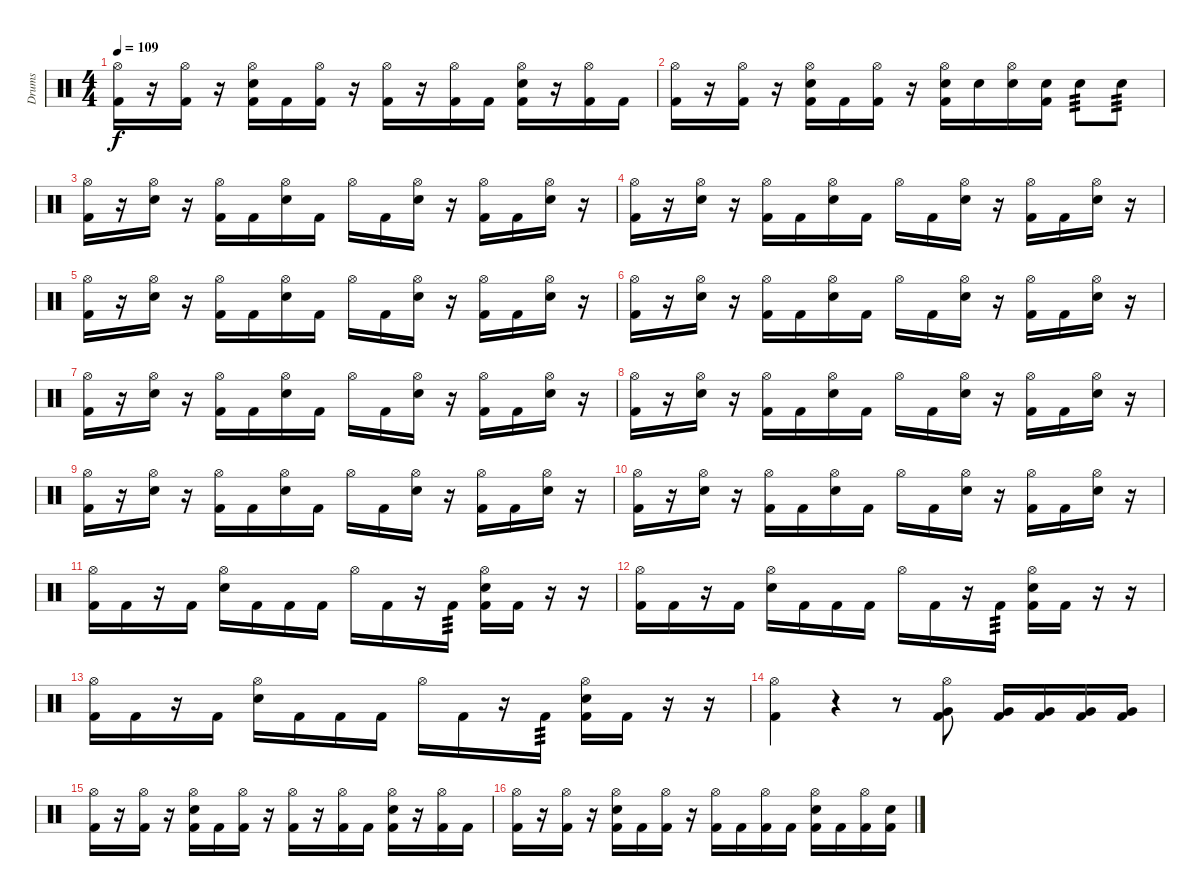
\track ("Drums" "Drums") {instrument percussion}
\staff {score}
\articulation defaults
\ts (4 4)
\tempo 109
\clef neutral
\ks c
("Hi-Hat (open)" "Kick (hit) 2").16{dy f} r.16 ("Hi-Hat (open)" "Kick (hit) 2").16 r.16 ("Hi-Hat (open)" "Electric Snare (hit)" "Kick (hit) 2").16 "Kick (hit) 2".16 ("Hi-Hat (open)" "Kick (hit) 2").16 r.16 ("Hi-Hat (open)" "Kick (hit) 2").16 r.16 ("Hi-Hat (open)" "Kick (hit) 2").16 "Kick (hit) 2".16 ("Hi-Hat (open)" "Electric Snare (hit)" "Kick (hit) 2").16 r.16 ("Hi-Hat (open)" "Kick (hit) 2").16 "Kick (hit) 2".16 |
("Hi-Hat (open)" "Kick (hit) 2").16 r.16 ("Hi-Hat (open)" "Kick (hit) 2").16 r.16 ("Hi-Hat (open)" "Electric Snare (hit)" "Kick (hit) 2").16 "Kick (hit) 2".16 ("Hi-Hat (open)" "Kick (hit) 2").16 r.16 ("Hi-Hat (open)" "Electric Snare (hit)" "Kick (hit) 2").16 "Electric Snare (hit)".16 ("Hi-Hat (open)" "Electric Snare (hit)").16 ("Electric Snare (hit)" "Kick (hit) 2").16 "Electric Snare (hit)".8{tp 3} "Electric Snare (hit)".8{tp 3} |
("Hi-Hat (open)" "Kick (hit) 2").16 r.16 ("Hi-Hat (open)" "Electric Snare (hit)").16 r.16 ("Hi-Hat (open)" "Kick (hit) 2").16 "Kick (hit) 2".16 ("Hi-Hat (open)" "Electric Snare (hit)").16 "Kick (hit) 2".16 "Hi-Hat (open)".16 "Kick (hit) 2".16 ("Hi-Hat (open)" "Electric Snare (hit)").16 r.16 ("Hi-Hat (open)" "Kick (hit) 2").16 "Kick (hit) 2".16 ("Hi-Hat (open)" "Electric Snare (hit)").16 r.16 |
("Hi-Hat (open)" "Kick (hit) 2").16 r.16 ("Hi-Hat (open)" "Electric Snare (hit)").16 r.16 ("Hi-Hat (open)" "Kick (hit) 2").16 "Kick (hit) 2".16 ("Hi-Hat (open)" "Electric Snare (hit)").16 "Kick (hit) 2".16 "Hi-Hat (open)".16 "Kick (hit) 2".16 ("Hi-Hat (open)" "Electric Snare (hit)").16 r.16 ("Hi-Hat (open)" "Kick (hit) 2").16 "Kick (hit) 2".16 ("Hi-Hat (open)" "Electric Snare (hit)").16 r.16 |
("Hi-Hat (open)" "Kick (hit) 2").16 r.16 ("Hi-Hat (open)" "Electric Snare (hit)").16 r.16 ("Hi-Hat (open)" "Kick (hit) 2").16 "Kick (hit) 2".16 ("Hi-Hat (open)" "Electric Snare (hit)").16 "Kick (hit) 2".16 "Hi-Hat (open)".16 "Kick (hit) 2".16 ("Hi-Hat (open)" "Electric Snare (hit)").16 r.16 ("Hi-Hat (open)" "Kick (hit) 2").16 "Kick (hit) 2".16 ("Hi-Hat (open)" "Electric Snare (hit)").16 r.16 |
("Hi-Hat (open)" "Kick (hit) 2").16 r.16 ("Hi-Hat (open)" "Electric Snare (hit)").16 r.16 ("Hi-Hat (open)" "Kick (hit) 2").16 "Kick (hit) 2".16 ("Hi-Hat (open)" "Electric Snare (hit)").16 "Kick (hit) 2".16 "Hi-Hat (open)".16 "Kick (hit) 2".16 ("Hi-Hat (open)" "Electric Snare (hit)").16 r.16 ("Hi-Hat (open)" "Kick (hit) 2").16 "Kick (hit) 2".16 ("Hi-Hat (open)" "Electric Snare (hit)").16 r.16 |
("Hi-Hat (open)" "Kick (hit) 2").16 r.16 ("Hi-Hat (open)" "Electric Snare (hit)").16 r.16 ("Hi-Hat (open)" "Kick (hit) 2").16 "Kick (hit) 2".16 ("Hi-Hat (open)" "Electric Snare (hit)").16 "Kick (hit) 2".16 "Hi-Hat (open)".16 "Kick (hit) 2".16 ("Hi-Hat (open)" "Electric Snare (hit)").16 r.16 ("Hi-Hat (open)" "Kick (hit) 2").16 "Kick (hit) 2".16 ("Hi-Hat (open)" "Electric Snare (hit)").16 r.16 |
("Hi-Hat (open)" "Kick (hit) 2").16 r.16 ("Hi-Hat (open)" "Electric Snare (hit)").16 r.16 ("Hi-Hat (open)" "Kick (hit) 2").16 "Kick (hit) 2".16 ("Hi-Hat (open)" "Electric Snare (hit)").16 "Kick (hit) 2".16 "Hi-Hat (open)".16 "Kick (hit) 2".16 ("Hi-Hat (open)" "Electric Snare (hit)").16 r.16 ("Hi-Hat (open)" "Kick (hit) 2").16 "Kick (hit) 2".16 ("Hi-Hat (open)" "Electric Snare (hit)").16 r.16 |
("Hi-Hat (open)" "Kick (hit) 2").16 r.16 ("Hi-Hat (open)" "Electric Snare (hit)").16 r.16 ("Hi-Hat (open)" "Kick (hit) 2").16 "Kick (hit) 2".16 ("Hi-Hat (open)" "Electric Snare (hit)").16 "Kick (hit) 2".16 "Hi-Hat (open)".16 "Kick (hit) 2".16 ("Hi-Hat (open)" "Electric Snare (hit)").16 r.16 ("Hi-Hat (open)" "Kick (hit) 2").16 "Kick (hit) 2".16 ("Hi-Hat (open)" "Electric Snare (hit)").16 r.16 |
("Hi-Hat (open)" "Kick (hit) 2").16 r.16 ("Hi-Hat (open)" "Electric Snare (hit)").16 r.16 ("Hi-Hat (open)" "Kick (hit) 2").16 "Kick (hit) 2".16 ("Hi-Hat (open)" "Electric Snare (hit)").16 "Kick (hit) 2".16 "Hi-Hat (open)".16 "Kick (hit) 2".16 ("Hi-Hat (open)" "Electric Snare (hit)").16 r.16 ("Hi-Hat (open)" "Kick (hit) 2").16 "Kick (hit) 2".16 ("Hi-Hat (open)" "Electric Snare (hit)").16 r.16 |
("Hi-Hat (open)" "Kick (hit) 2").16 "Kick (hit) 2".16 r.16 "Kick (hit) 2".16 ("Hi-Hat (open)" "Electric Snare (hit)").16 "Kick (hit) 2".16 "Kick (hit) 2".16 "Kick (hit) 2".16 "Hi-Hat (open)".16 "Kick (hit) 2".16 r.16 "Kick (hit) 2".16{tp 3} ("Hi-Hat (open)" "Electric Snare (hit)" "Kick (hit) 2").16 "Kick (hit) 2".16 r.16 r.16 |
("Hi-Hat (open)" "Kick (hit) 2").16 "Kick (hit) 2".16 r.16 "Kick (hit) 2".16 ("Hi-Hat (open)" "Electric Snare (hit)").16 "Kick (hit) 2".16 "Kick (hit) 2".16 "Kick (hit) 2".16 "Hi-Hat (open)".16 "Kick (hit) 2".16 r.16 "Kick (hit) 2".16{tp 3} ("Hi-Hat (open)" "Electric Snare (hit)" "Kick (hit) 2").16 "Kick (hit) 2".16 r.16 r.16 |
("Hi-Hat (open)" "Kick (hit) 2").16 "Kick (hit) 2".16 r.16 "Kick (hit) 2".16 ("Hi-Hat (open)" "Electric Snare (hit)").16 "Kick (hit) 2".16 "Kick (hit) 2".16 "Kick (hit) 2".16 "Hi-Hat (open)".16 "Kick (hit) 2".16 r.16 "Kick (hit) 2".16{tp 3} ("Hi-Hat (open)" "Electric Snare (hit)" "Kick (hit) 2").16 "Kick (hit) 2".16 r.16 r.16 |
("Hi-Hat (open)" "Kick (hit) 2").4 r.4 r.8 ("Hi-Hat (open)" "Very Low Tom (hit)" "Kick (hit) 2").8 ("Very Low Tom (hit)" "Kick (hit) 2").16 ("Very Low Tom (hit)" "Kick (hit) 2").16 ("Very Low Tom (hit)" "Kick (hit) 2").16 ("Very Low Tom (hit)" "Kick (hit) 2").16 |
("Hi-Hat (open)" "Kick (hit) 2").16 r.16 ("Hi-Hat (open)" "Kick (hit) 2").16 r.16 ("Hi-Hat (open)" "Electric Snare (hit)" "Kick (hit) 2").16 "Kick (hit) 2".16 ("Hi-Hat (open)" "Kick (hit) 2").16 r.16 ("Hi-Hat (open)" "Kick (hit) 2").16 r.16 ("Hi-Hat (open)" "Kick (hit) 2").16 "Kick (hit) 2".16 ("Hi-Hat (open)" "Electric Snare (hit)" "Kick (hit) 2").16 r.16 ("Hi-Hat (open)" "Kick (hit) 2").16 "Kick (hit) 2".16 |
("Hi-Hat (open)" "Kick (hit) 2").16 r.16 ("Hi-Hat (open)" "Kick (hit) 2").16 r.16 ("Hi-Hat (open)" "Electric Snare (hit)" "Kick (hit) 2").16 "Kick (hit) 2".16 ("Hi-Hat (open)" "Kick (hit) 2").16 r.16 ("Hi-Hat (open)" "Kick (hit) 2").16 "Kick (hit) 2".16 ("Hi-Hat (open)" "Kick (hit) 2").16 "Kick (hit) 2".16 ("Hi-Hat (open)" "Electric Snare (hit)" "Kick (hit) 2").16 "Kick (hit) 2".16 ("Hi-Hat (open)" "Kick (hit) 2").16 ("Electric Snare (hit)" "Kick (hit) 2").16
